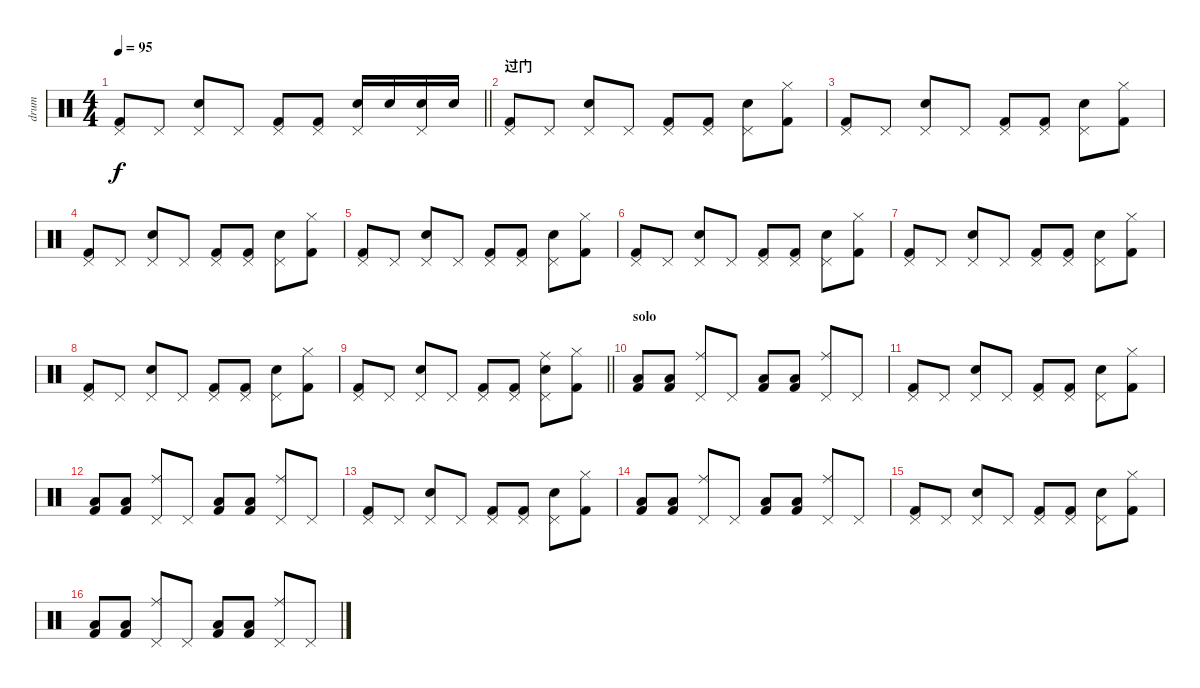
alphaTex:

\track ("drum" "drum") {instrument percussion}
\staff {score}
\articulation defaults
\ts (4 4)
\tempo 95
\clef neutral
\barLineRight lightlight
\ks c
("Pedal Hi-Hat (hit)" "Kick (hit) 2").8{dy f} "Pedal Hi-Hat (hit)".8 ("Pedal Hi-Hat (hit)" "Hand Clap (hit)").8 "Pedal Hi-Hat (hit)".8 ("Pedal Hi-Hat (hit)" "Kick (hit) 2").8 ("Pedal Hi-Hat (hit)" "Kick (hit) 2").8 ("Pedal Hi-Hat (hit)" "Snare (hit) 2").16 "Snare (hit) 2".16 ("Pedal Hi-Hat (hit)" "Snare (hit) 2").16 "Snare (hit) 2".16 |
\section ("" "过门")
("Pedal Hi-Hat (hit)" "Kick (hit) 2").8 "Pedal Hi-Hat (hit)".8 ("Pedal Hi-Hat (hit)" "Hand Clap (hit)").8 "Pedal Hi-Hat (hit)".8 ("Pedal Hi-Hat (hit)" "Kick (hit) 2").8 ("Pedal Hi-Hat (hit)" "Kick (hit) 2").8 ("Pedal Hi-Hat (hit)" "Hand Clap (hit)").8 ("Hi-Hat (closed)" "Kick (hit) 2").8 |
("Pedal Hi-Hat (hit)" "Kick (hit) 2").8 "Pedal Hi-Hat (hit)".8 ("Pedal Hi-Hat (hit)" "Hand Clap (hit)").8 "Pedal Hi-Hat (hit)".8 ("Pedal Hi-Hat (hit)" "Kick (hit) 2").8 ("Pedal Hi-Hat (hit)" "Kick (hit) 2").8 ("Pedal Hi-Hat (hit)" "Hand Clap (hit)").8 ("Hi-Hat (closed)" "Kick (hit) 2").8 |
("Pedal Hi-Hat (hit)" "Kick (hit) 2").8 "Pedal Hi-Hat (hit)".8 ("Pedal Hi-Hat (hit)" "Hand Clap (hit)").8 "Pedal Hi-Hat (hit)".8 ("Pedal Hi-Hat (hit)" "Kick (hit) 2").8 ("Pedal Hi-Hat (hit)" "Kick (hit) 2").8 ("Pedal Hi-Hat (hit)" "Hand Clap (hit)").8 ("Hi-Hat (closed)" "Kick (hit) 2").8 |
("Pedal Hi-Hat (hit)" "Kick (hit) 2").8 "Pedal Hi-Hat (hit)".8 ("Pedal Hi-Hat (hit)" "Hand Clap (hit)").8 "Pedal Hi-Hat (hit)".8 ("Pedal Hi-Hat (hit)" "Kick (hit) 2").8 ("Pedal Hi-Hat (hit)" "Kick (hit) 2").8 ("Pedal Hi-Hat (hit)" "Hand Clap (hit)").8 ("Hi-Hat (closed)" "Kick (hit) 2").8 |
("Pedal Hi-Hat (hit)" "Kick (hit) 2").8 "Pedal Hi-Hat (hit)".8 ("Pedal Hi-Hat (hit)" "Hand Clap (hit)").8 "Pedal Hi-Hat (hit)".8 ("Pedal Hi-Hat (hit)" "Kick (hit) 2").8 ("Pedal Hi-Hat (hit)" "Kick (hit) 2").8 ("Pedal Hi-Hat (hit)" "Hand Clap (hit)").8 ("Hi-Hat (closed)" "Kick (hit) 2").8 |
("Pedal Hi-Hat (hit)" "Kick (hit) 2").8 "Pedal Hi-Hat (hit)".8 ("Pedal Hi-Hat (hit)" "Hand Clap (hit)").8 "Pedal Hi-Hat (hit)".8 ("Pedal Hi-Hat (hit)" "Kick (hit) 2").8 ("Pedal Hi-Hat (hit)" "Kick (hit) 2").8 ("Pedal Hi-Hat (hit)" "Hand Clap (hit)").8 ("Hi-Hat (closed)" "Kick (hit) 2").8 |
("Pedal Hi-Hat (hit)" "Kick (hit) 2").8 "Pedal Hi-Hat (hit)".8 ("Pedal Hi-Hat (hit)" "Hand Clap (hit)").8 "Pedal Hi-Hat (hit)".8 ("Pedal Hi-Hat (hit)" "Kick (hit) 2").8 ("Pedal Hi-Hat (hit)" "Kick (hit) 2").8 ("Pedal Hi-Hat (hit)" "Hand Clap (hit)").8 ("Hi-Hat (closed)" "Kick (hit) 2").8 |
\barLineRight lightlight
("Pedal Hi-Hat (hit)" "Kick (hit) 2").8 "Pedal Hi-Hat (hit)".8 ("Pedal Hi-Hat (hit)" "Hand Clap (hit)").8 "Pedal Hi-Hat (hit)".8 ("Pedal Hi-Hat (hit)" "Kick (hit) 2").8 ("Pedal Hi-Hat (hit)" "Kick (hit) 2").8 ("Pedal Hi-Hat (hit)" "Hand Clap (hit)" "Ride (middle)").8 ("Hi-Hat (closed)" "Kick (hit) 2").8 |
\section ("" "solo")
("Kick (hit) 2" "Low Tom (hit)").8 ("Kick (hit) 2" "Low Tom (hit)").8 ("Pedal Hi-Hat (hit)" "Ride (middle)").8 "Pedal Hi-Hat (hit)".8 ("Kick (hit) 2" "Low Tom (hit)").8 ("Kick (hit) 2" "Low Tom (hit)").8 ("Pedal Hi-Hat (hit)" "Ride (middle)").8 "Pedal Hi-Hat (hit)".8 |
("Pedal Hi-Hat (hit)" "Kick (hit) 2").8 "Pedal Hi-Hat (hit)".8 ("Pedal Hi-Hat (hit)" "Hand Clap (hit)").8 "Pedal Hi-Hat (hit)".8 ("Pedal Hi-Hat (hit)" "Kick (hit) 2").8 ("Pedal Hi-Hat (hit)" "Kick (hit) 2").8 ("Pedal Hi-Hat (hit)" "Hand Clap (hit)").8 ("Hi-Hat (closed)" "Kick (hit) 2").8 |
("Kick (hit) 2" "Low Tom (hit)").8 ("Kick (hit) 2" "Low Tom (hit)").8 ("Pedal Hi-Hat (hit)" "Ride (middle)").8 "Pedal Hi-Hat (hit)".8 ("Kick (hit) 2" "Low Tom (hit)").8 ("Kick (hit) 2" "Low Tom (hit)").8 ("Pedal Hi-Hat (hit)" "Ride (middle)").8 "Pedal Hi-Hat (hit)".8 |
("Pedal Hi-Hat (hit)" "Kick (hit) 2").8 "Pedal Hi-Hat (hit)".8 ("Pedal Hi-Hat (hit)" "Hand Clap (hit)").8 "Pedal Hi-Hat (hit)".8 ("Pedal Hi-Hat (hit)" "Kick (hit) 2").8 ("Pedal Hi-Hat (hit)" "Kick (hit) 2").8 ("Pedal Hi-Hat (hit)" "Hand Clap (hit)").8 ("Hi-Hat (closed)" "Kick (hit) 2").8 |
("Kick (hit) 2" "Low Tom (hit)").8 ("Kick (hit) 2" "Low Tom (hit)").8 ("Pedal Hi-Hat (hit)" "Ride (middle)").8 "Pedal Hi-Hat (hit)".8 ("Kick (hit) 2" "Low Tom (hit)").8 ("Kick (hit) 2" "Low Tom (hit)").8 ("Pedal Hi-Hat (hit)" "Ride (middle)").8 "Pedal Hi-Hat (hit)".8 |
("Pedal Hi-Hat (hit)" "Kick (hit) 2").8 "Pedal Hi-Hat (hit)".8 ("Pedal Hi-Hat (hit)" "Hand Clap (hit)").8 "Pedal Hi-Hat (hit)".8 ("Pedal Hi-Hat (hit)" "Kick (hit) 2").8 ("Pedal Hi-Hat (hit)" "Kick (hit) 2").8 ("Pedal Hi-Hat (hit)" "Hand Clap (hit)").8 ("Hi-Hat (closed)" "Kick (hit) 2").8 |
("Kick (hit) 2" "Low Tom (hit)").8 ("Kick (hit) 2" "Low Tom (hit)").8 ("Pedal Hi-Hat (hit)" "Ride (middle)").8 "Pedal Hi-Hat (hit)".8 ("Kick (hit) 2" "Low Tom (hit)").8 ("Kick (hit) 2" "Low Tom (hit)").8 ("Pedal Hi-Hat (hit)" "Ride (middle)").8 "Pedal Hi-Hat (hit)".8
